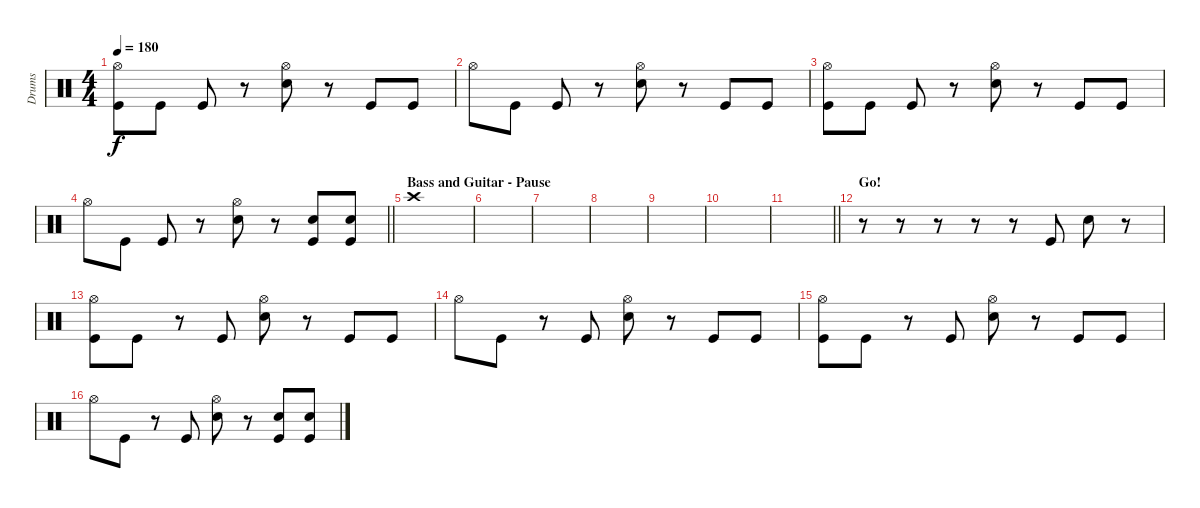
\track ("Drums" "Drums") {instrument percussion}
\staff {score}
\articulation defaults
\ts (4 4)
\tempo 180
\clef neutral
\ks c
("Hi-Hat (open)" "Kick (hit)").8{dy f} "Kick (hit)".8 "Kick (hit)".8 r.8 ("Hi-Hat (open)" "Electric Snare (hit)").8 r.8 "Kick (hit)".8 "Kick (hit)".8 |
"Hi-Hat (open)".8 "Kick (hit)".8 "Kick (hit)".8 r.8 ("Hi-Hat (open)" "Electric Snare (hit)").8 r.8 "Kick (hit)".8 "Kick (hit)".8 |
("Hi-Hat (open)" "Kick (hit)").8 "Kick (hit)".8 "Kick (hit)".8 r.8 ("Hi-Hat (open)" "Electric Snare (hit)").8 r.8 "Kick (hit)".8 "Kick (hit)".8 |
\barLineRight lightlight "Hi-Hat (open)".8 "Kick (hit)".8 "Kick (hit)".8
r.8 ("Hi-Hat (open)" "Electric Snare (hit)").8 r.8 ("Electric Snare (hit)" "Kick (hit)").8 ("Electric Snare (hit)" "Kick (hit)").8 |
\section ("" "Bass and Guitar - Pause")
"Crash high (hit)".1 |
|
|
|
|
|
\barLineRight lightlight
|
\section ("" "Go!")
r.8 r.8 r.8 r.8 r.8 "Kick (hit)".8 "Electric Snare (hit)".8 r.8 |
("Hi-Hat (open)" "Kick (hit)").8 "Kick (hit)".8 r.8 "Kick (hit)".8 ("Hi-Hat (open)" "Electric Snare (hit)").8 r.8 "Kick (hit)".8 "Kick (hit)".8 |
"Hi-Hat (open)".8 "Kick (hit)".8 r.8 "Kick (hit)".8 ("Hi-Hat (open)" "Electric Snare (hit)").8 r.8 "Kick (hit)".8 "Kick (hit)".8 |
("Hi-Hat (open)" "Kick (hit)").8 "Kick (hit)".8 r.8 "Kick (hit)".8 ("Hi-Hat (open)" "Electric Snare (hit)").8 r.8 "Kick (hit)".8 "Kick (hit)".8 |
"Hi-Hat (open)".8 "Kick (hit)".8 r.8 "Kick (hit)".8 ("Hi-Hat (open)" "Electric Snare (hit)").8 r.8 ("Electric Snare (hit)" "Kick (hit)").8 ("Electric Snare (hit)" "Kick (hit)").8
